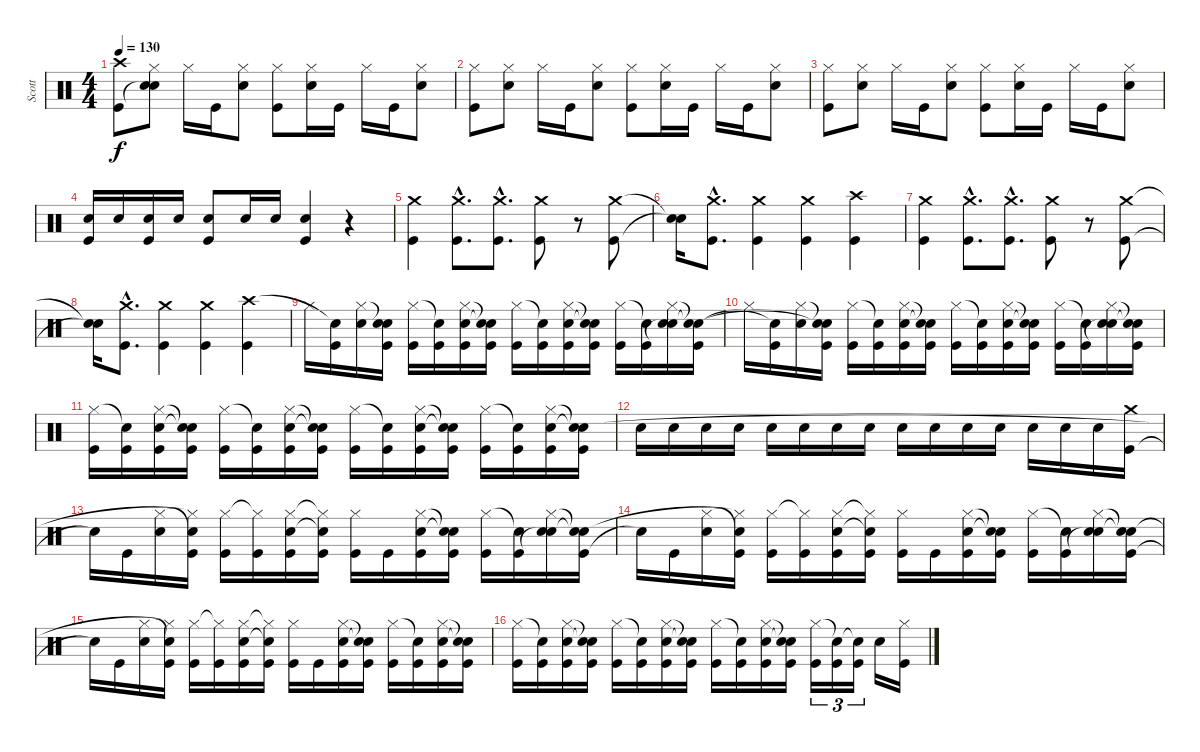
\track ("Scott" "Scott") {instrument percussion}
\staff {score}
\articulation defaults
\ts (4 4)
\tempo 130
\clef neutral
\ks c
("Kick (hit)" "Crash high (hit)").8{dy f} ("Snare (hit)"{t} "Snare (hit) 2" "Hi-Hat (closed)").8 "Hi-Hat (closed)".16 "Kick (hit)".16 ("Snare (hit) 2" "Hi-Hat (closed)").8 ("Kick (hit)" "Hi-Hat (closed)").8 ("Snare (hit) 2" "Hi-Hat (closed)").16 "Kick (hit)".16 "Hi-Hat (closed)".16 "Kick (hit)".16 ("Snare (hit) 2" "Hi-Hat (closed)").8 |
("Kick (hit)" "Hi-Hat (closed)").8 ("Snare (hit) 2" "Hi-Hat (closed)").8 "Hi-Hat (closed)".16 "Kick (hit)".16 ("Snare (hit) 2" "Hi-Hat (closed)").8 ("Kick (hit)" "Hi-Hat (closed)").8 ("Snare (hit) 2" "Hi-Hat (closed)").16 "Kick (hit)".16 "Hi-Hat (closed)".16 "Kick (hit)".16 ("Snare (hit) 2" "Hi-Hat (closed)").8 |
("Kick (hit)" "Hi-Hat (closed)").8 ("Snare (hit) 2" "Hi-Hat (closed)").8 "Hi-Hat (closed)".16 "Kick (hit)".16 ("Snare (hit) 2" "Hi-Hat (closed)").8 ("Kick (hit)" "Hi-Hat (closed)").8 ("Snare (hit) 2" "Hi-Hat (closed)").16 "Kick (hit)".16 "Hi-Hat (closed)".16 "Kick (hit)".16 ("Snare (hit) 2" "Hi-Hat (closed)").8 |
("Kick (hit)" "Snare (hit) 2").16 "Snare (hit) 2".16 ("Kick (hit)" "Snare (hit) 2").16 "Snare (hit) 2".16 ("Kick (hit)" "Snare (hit) 2").8 "Snare (hit) 2".16 "Snare (hit) 2".16 ("Kick (hit)" "Snare (hit) 2").4 r.4 |
("Kick (hit)" "Crash medium (hit)").4 ("Kick (hit)"{hac} "Crash medium (hit)"{hac}).8{d} ("Kick (hit)"{hac} "Crash medium (hit)"{hac}).8{d} ("Kick (hit)" "Crash medium (hit)").8 r.8 ("Kick (hit)" "Crash medium (hit)").8 |
("Snare (hit)"{t} "Snare (hit)"{t}).16 ("Kick (hit)"{hac} "Crash medium (hit)"{hac}).8{d} ("Kick (hit)" "Crash medium (hit)").4 ("Kick (hit)" "Crash medium (hit)").4 ("Kick (hit)" "Crash high (hit)").4 |
("Kick (hit)" "Crash medium (hit)").4 ("Kick (hit)"{hac} "Crash medium (hit)"{hac}).8{d} ("Kick (hit)"{hac} "Crash medium (hit)"{hac}).8{d} ("Kick (hit)" "Crash medium (hit)").8 r.8 ("Kick (hit)" "Crash medium (hit)").8 |
("Snare (hit)"{t} "Snare (hit)"{t}).16 ("Kick (hit)"{hac} "Crash medium (hit)"{hac}).8{d} ("Kick (hit)" "Crash medium (hit)").4 ("Kick (hit)" "Crash medium (hit)").4 ("Kick (hit)" "Crash high (hit)").4 |
"Hi-Hat (closed)".16 ("Kick (hit)" "Snare (hit)"{t}).16 ("Snare (hit) 2" "Hi-Hat (closed)").16 ("Kick (hit)" "Snare (hit)"{t} "Snare (hit)").16 ("Kick (hit)" "Hi-Hat (closed)").16 ("Kick (hit)" "Snare (hit)"{t}).16 ("Kick (hit)" "Snare (hit) 2" "Hi-Hat (closed)").16 ("Kick (hit)" "Snare (hit)"{t} "Snare (hit)"{t}).16 ("Kick (hit)" "Hi-Hat (closed)").16 ("Kick (hit)" "Snare (hit)"{t}).16 ("Kick (hit)" "Snare (hit) 2" "Hi-Hat (closed)").16 ("Kick (hit)" "Snare (hit)"{t} "Snare (hit)"{t}).16 ("Kick (hit)" "Hi-Hat (closed)").16 ("Kick (hit)" "Snare (hit)"{t}).16 ("Snare (hit)"{t} "Snare (hit) 2" "Hi-Hat (closed)").16 ("Kick (hit)" "Snare (hit)"{t} "Snare (hit)"{t}).16 |
"Hi-Hat (closed)".16 ("Kick (hit)" "Snare (hit)"{t}).16 ("Snare (hit) 2" "Hi-Hat (closed)").16 ("Kick (hit)" "Snare (hit)"{t} "Snare (hit)"{t}).16 ("Kick (hit)" "Hi-Hat (closed)").16 ("Kick (hit)" "Snare (hit)"{t}).16 ("Kick (hit)" "Snare (hit) 2" "Hi-Hat (closed)").16 ("Kick (hit)" "Snare (hit)"{t} "Snare (hit)"{t}).16 ("Kick (hit)" "Hi-Hat (closed)").16 ("Kick (hit)" "Snare (hit)"{t}).16 ("Kick (hit)" "Snare (hit) 2" "Hi-Hat (closed)").16 ("Kick (hit)" "Snare (hit)"{t} "Snare (hit)"{t}).16 ("Kick (hit)" "Hi-Hat (closed)").16 ("Kick (hit)" "Snare (hit)"{t}).16 ("Snare (hit)"{t} "Snare (hit) 2" "Hi-Hat (closed)").16 ("Kick (hit)" "Snare (hit)"{t} "Snare (hit)"{t}).16 |
("Kick (hit)" "Hi-Hat (closed)").16 ("Kick (hit)" "Snare (hit)"{t}).16 ("Kick (hit)" "Snare (hit) 2" "Hi-Hat (closed)").16 ("Kick (hit)" "Snare (hit)"{t} "Snare (hit)"{t}).16 ("Kick (hit)" "Hi-Hat (closed)").16 ("Kick (hit)" "Snare (hit)"{t}).16 ("Kick (hit)" "Snare (hit) 2" "Hi-Hat (closed)").16 ("Kick (hit)" "Snare (hit)"{t} "Snare (hit)"{t}).16 ("Kick (hit)" "Hi-Hat (closed)").16 ("Kick (hit)" "Snare (hit)"{t}).16 ("Kick (hit)" "Snare (hit) 2" "Hi-Hat (closed)").16 ("Kick (hit)" "Snare (hit)"{t} "Snare (hit)"{t}).16 ("Kick (hit)" "Hi-Hat (closed)").16 ("Kick (hit)" "Snare (hit)"{t}).16 ("Kick (hit)" "Snare (hit) 2" "Hi-Hat (closed)").16 ("Kick (hit)" "Snare (hit)"{t} "Snare (hit)"{t}).16 |
"Snare (hit) 2".16 "Snare (hit) 2".16 "Snare (hit) 2".16 "Snare (hit) 2".16 "Snare (hit) 2".16 "Snare (hit) 2".16 "Snare (hit) 2".16 "Snare (hit) 2".16 "Snare (hit) 2".16 "Snare (hit) 2".16 "Snare (hit) 2".16 "Snare (hit) 2".16 "Snare (hit) 2".16 "Snare (hit) 2".16 "Snare (hit) 2".16 ("Kick (hit)" "Crash medium (hit)").16 |
"Snare (hit)"{t}.16 "Kick (hit)".16 ("Snare (hit) 2" "Hi-Hat (closed)").16 ("Kick (hit)" "Snare (hit)"{t} "Hi-Hat (closed)"{t}).16 ("Kick (hit)" "Hi-Hat (closed)").16 ("Kick (hit)" "Hi-Hat (closed)"{t}).16 ("Kick (hit)" "Snare (hit) 2" "Hi-Hat (closed)").16 ("Kick (hit)" "Snare (hit)"{t} "Hi-Hat (closed)"{t}).16 ("Kick (hit)" "Hi-Hat (closed)").16 "Kick (hit)".16 ("Kick (hit)" "Snare (hit) 2" "Hi-Hat (closed)").16 ("Kick (hit)" "Snare (hit)"{t} "Snare (hit)"{t}).16 ("Kick (hit)" "Hi-Hat (closed)").16 ("Kick (hit)" "Snare (hit)"{t}).16 ("Snare (hit)"{t} "Snare (hit) 2" "Hi-Hat (closed)").16 ("Kick (hit)" "Snare (hit)"{t} "Snare (hit)"{t}).16 |
"Snare (hit)"{t}.16 "Kick (hit)".16 ("Snare (hit) 2" "Hi-Hat (closed)").16 ("Kick (hit)" "Snare (hit)"{t} "Hi-Hat (closed)"{t}).16 ("Kick (hit)" "Hi-Hat (closed)").16 ("Kick (hit)" "Hi-Hat (closed)"{t}).16 ("Kick (hit)" "Snare (hit) 2" "Hi-Hat (closed)").16 ("Kick (hit)" "Snare (hit)"{t} "Hi-Hat (closed)"{t}).16 ("Kick (hit)" "Hi-Hat (closed)").16 "Kick (hit)".16 ("Kick (hit)" "Snare (hit) 2" "Hi-Hat (closed)").16 ("Kick (hit)" "Snare (hit)"{t} "Snare (hit)"{t}).16 ("Kick (hit)" "Hi-Hat (closed)").16 ("Kick (hit)" "Snare (hit)"{t}).16 ("Snare (hit)"{t} "Snare (hit) 2" "Hi-Hat (closed)").16 ("Kick (hit)" "Snare (hit)"{t} "Snare (hit)"{t}).16 |
"Snare (hit)"{t}.16 "Kick (hit)".16 ("Snare (hit) 2" "Hi-Hat (closed)").16 ("Kick (hit)" "Snare (hit)"{t} "Hi-Hat (closed)"{t}).16 ("Kick (hit)" "Hi-Hat (closed)").16 ("Kick (hit)" "Hi-Hat (closed)"{t}).16 ("Kick (hit)" "Snare (hit) 2" "Hi-Hat (closed)").16 ("Kick (hit)" "Snare (hit)"{t} "Hi-Hat (closed)"{t}).16 ("Kick (hit)" "Hi-Hat (closed)").16 "Kick (hit)".16 ("Kick (hit)" "Snare (hit) 2" "Hi-Hat (closed)").16 ("Kick (hit)" "Snare (hit)"{t} "Snare (hit)"{t}).16 ("Kick (hit)" "Hi-Hat (closed)").16 ("Kick (hit)" "Snare (hit)"{t}).16 ("Kick (hit)" "Snare (hit) 2" "Hi-Hat (closed)").16 ("Kick (hit)" "Snare (hit)"{t} "Snare (hit)"{t}).16 |
("Kick (hit)" "Hi-Hat (closed)").16 ("Kick (hit)" "Snare (hit)"{t}).16 ("Kick (hit)" "Snare (hit) 2" "Hi-Hat (closed)").16 ("Kick (hit)" "Snare (hit)"{t} "Snare (hit)"{t}).16 ("Kick (hit)" "Hi-Hat (closed)").16 ("Kick (hit)" "Snare (hit)"{t}).16 ("Kick (hit)" "Snare (hit) 2" "Hi-Hat (closed)").16 ("Kick (hit)" "Snare (hit)"{t} "Snare (hit)"{t}).16 ("Kick (hit)" "Hi-Hat (closed)").16 ("Kick (hit)" "Snare (hit)"{t}).16 ("Kick (hit)" "Snare (hit) 2" "Hi-Hat (closed)").16 ("Kick (hit)" "Snare (hit)"{t} "Snare (hit)"{t}).16 ("Kick (hit)" "Hi-Hat (closed)").16{tu (3 2)} ("Kick (hit)" "Snare (hit)"{t}).16{tu (3 2)} ("Kick (hit)" "Snare (hit)"{t}).16{tu (3 2)} "Snare (hit) 2".16 ("Kick (hit)" "Hi-Hat (closed)").16
